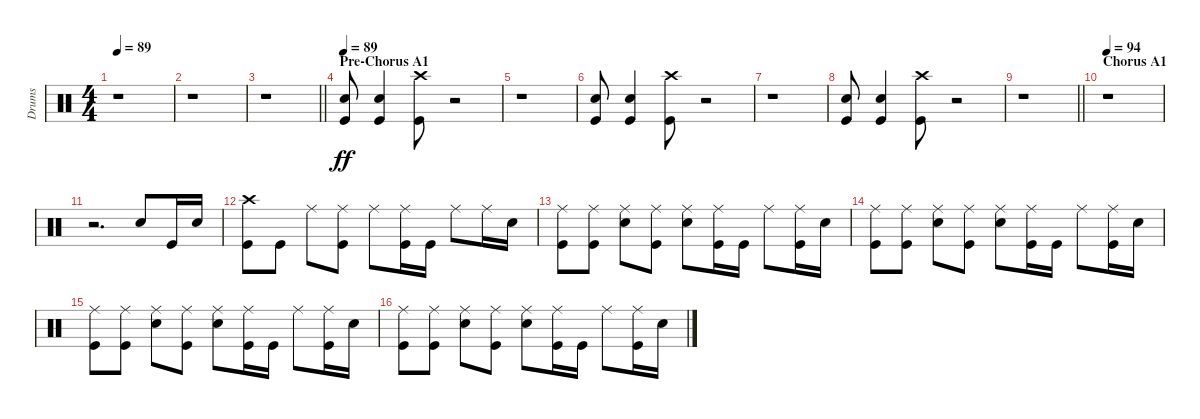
\track ("Drums" "Drums") {instrument percussion}
\staff {score}
\articulation defaults
\ts (4 4)
\tempo 89
\clef neutral
\ks c
r.1{dy ff} |
r.1 |
\barLineRight lightlight
r.1 |
\section ("" "Pre-Chorus A1")
\tempo 89
("Electric Snare (hit)" "Kick (hit)").8 ("Electric Snare (hit)" "Kick (hit)").4 ("Crash high (hit)" "Kick (hit)").8 r.2 |
r.1 |
("Electric Snare (hit)" "Kick (hit)").8 ("Electric Snare (hit)" "Kick (hit)").4 ("Crash high (hit)" "Kick (hit)").8 r.2 |
r.1 |
("Electric Snare (hit)" "Kick (hit)").8 ("Electric Snare (hit)" "Kick (hit)").4 ("Crash high (hit)" "Kick (hit)").8 r.2 |
\barLineRight lightlight
r.1 |
\section ("" "Chorus A1")
\tempo 94
r.1 |
r.2{d} "Electric Snare (hit)".8 "Kick (hit)".16 "Electric Snare (hit)".16 |
("Crash high (hit)" "Kick (hit)").8 "Kick (hit)".8 "Ride (middle)".8 ("Ride (middle)" "Kick (hit)").8 "Ride (middle)".8 ("Ride (middle)" "Kick (hit)").16 "Kick (hit)".16 "Ride (middle)".8 "Ride (middle)".16 "Electric Snare (hit)".16 |
("Ride (middle)" "Kick (hit)").8 ("Ride (middle)" "Kick (hit)").8 ("Ride (middle)" "Electric Snare (hit)").8 ("Ride (middle)" "Kick (hit)").8 ("Ride (middle)" "Electric Snare (hit)").8 ("Ride (middle)" "Kick (hit)").16 "Kick (hit)".16 "Ride (middle)".8 ("Ride (middle)" "Kick (hit)").16 "Electric Snare (hit)".16 |
("Ride (middle)" "Kick (hit)").8 ("Ride (middle)" "Kick (hit)").8 ("Ride (middle)" "Electric Snare (hit)").8 ("Ride (middle)" "Kick (hit)").8 ("Ride (middle)" "Electric Snare (hit)").8 ("Ride (middle)" "Kick (hit)").16 "Kick (hit)".16 "Ride (middle)".8 ("Ride (middle)" "Kick (hit)").16 "Electric Snare (hit)".16 |
("Ride (middle)" "Kick (hit)").8 ("Ride (middle)" "Kick (hit)").8 ("Ride (middle)" "Electric Snare (hit)").8 ("Ride (middle)" "Kick (hit)").8 ("Ride (middle)" "Electric Snare (hit)").8 ("Ride (middle)" "Kick (hit)").16 "Kick (hit)".16 "Ride (middle)".8 ("Ride (middle)" "Kick (hit)").16 "Electric Snare (hit)".16 |
("Ride (middle)" "Kick (hit)").8 ("Ride (middle)" "Kick (hit)").8 ("Ride (middle)" "Electric Snare (hit)").8 ("Ride (middle)" "Kick (hit)").8 ("Ride (middle)" "Electric Snare (hit)").8 ("Ride (middle)" "Kick (hit)").16 "Kick (hit)".16 "Ride (middle)".8 ("Ride (middle)" "Kick (hit)").16 "Electric Snare (hit)".16
